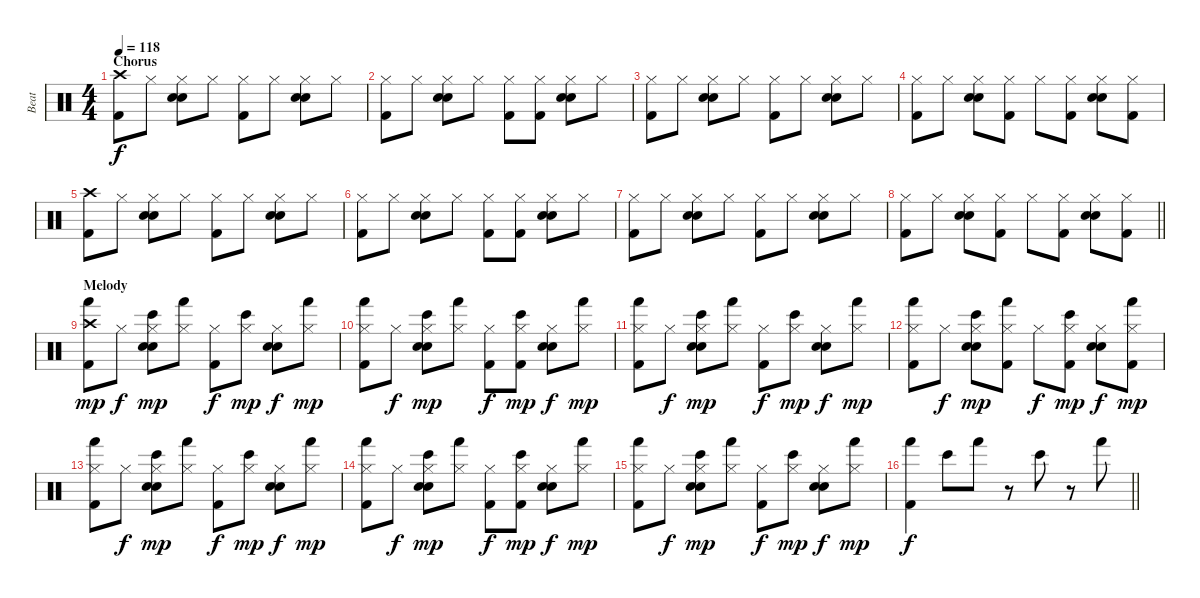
\track ("Beat" "Beat") {instrument percussion}
\staff {score}
\articulation defaults
\ts (4 4)
\section ("" "Chorus")
\tempo 118
\clef neutral
\ks c
("Crash high (hit)" "Kick (hit) 2").8{dy f} "Hi-Hat (closed)".8 ("Hi-Hat (closed)" "Electric Snare (hit)" "Hand Clap (hit)").8 "Hi-Hat (closed)".8 ("Hi-Hat (closed)" "Kick (hit) 2").8 "Hi-Hat (closed)".8 ("Hi-Hat (closed)" "Electric Snare (hit)" "Hand Clap (hit)").8 "Hi-Hat (closed)".8 |
("Hi-Hat (closed)" "Kick (hit) 2").8 "Hi-Hat (closed)".8 ("Hi-Hat (closed)" "Electric Snare (hit)" "Hand Clap (hit)").8 "Hi-Hat (closed)".8 ("Hi-Hat (closed)" "Kick (hit) 2").8 ("Hi-Hat (closed)" "Kick (hit) 2").8 ("Hi-Hat (closed)" "Electric Snare (hit)" "Hand Clap (hit)").8 "Hi-Hat (closed)".8 |
("Hi-Hat (closed)" "Kick (hit) 2").8 "Hi-Hat (closed)".8 ("Hi-Hat (closed)" "Electric Snare (hit)" "Hand Clap (hit)").8 "Hi-Hat (closed)".8 ("Hi-Hat (closed)" "Kick (hit) 2").8 "Hi-Hat (closed)".8 ("Hi-Hat (closed)" "Electric Snare (hit)" "Hand Clap (hit)").8 "Hi-Hat (closed)".8 |
("Hi-Hat (closed)" "Kick (hit) 2").8 "Hi-Hat (closed)".8 ("Hi-Hat (closed)" "Electric Snare (hit)" "Hand Clap (hit)").8 ("Hi-Hat (closed)" "Kick (hit) 2").8 "Hi-Hat (closed)".8 ("Hi-Hat (closed)" "Kick (hit) 2").8 ("Hi-Hat (closed)" "Electric Snare (hit)" "Hand Clap (hit)").8 ("Hi-Hat (closed)" "Kick (hit) 2").8 |
("Crash high (hit)" "Kick (hit) 2").8 "Hi-Hat (closed)".8 ("Hi-Hat (closed)" "Electric Snare (hit)" "Hand Clap (hit)").8 "Hi-Hat (closed)".8 ("Hi-Hat (closed)" "Kick (hit) 2").8 "Hi-Hat (closed)".8 ("Hi-Hat (closed)" "Electric Snare (hit)" "Hand Clap (hit)").8 "Hi-Hat (closed)".8 |
("Hi-Hat (closed)" "Kick (hit) 2").8 "Hi-Hat (closed)".8 ("Hi-Hat (closed)" "Electric Snare (hit)" "Hand Clap (hit)").8 "Hi-Hat (closed)".8 ("Hi-Hat (closed)" "Kick (hit) 2").8 ("Hi-Hat (closed)" "Kick (hit) 2").8 ("Hi-Hat (closed)" "Electric Snare (hit)" "Hand Clap (hit)").8 "Hi-Hat (closed)".8 |
("Hi-Hat (closed)" "Kick (hit) 2").8 "Hi-Hat (closed)".8 ("Hi-Hat (closed)" "Electric Snare (hit)" "Hand Clap (hit)").8 "Hi-Hat (closed)".8 ("Hi-Hat (closed)" "Kick (hit) 2").8 "Hi-Hat (closed)".8 ("Hi-Hat (closed)" "Electric Snare (hit)" "Hand Clap (hit)").8 "Hi-Hat (closed)".8 |
\barLineRight lightlight
("Hi-Hat (closed)" "Kick (hit) 2").8 "Hi-Hat (closed)".8 ("Hi-Hat (closed)" "Electric Snare (hit)" "Hand Clap (hit)").8 ("Hi-Hat (closed)" "Kick (hit) 2").8 "Hi-Hat (closed)".8 ("Hi-Hat (closed)" "Kick (hit) 2").8 ("Hi-Hat (closed)" "Electric Snare (hit)" "Hand Clap (hit)").8 ("Hi-Hat (closed)" "Kick (hit) 2").8 |
\section ("" "Melody")
("Crash high (hit)" "Hand (hit)" "Kick (hit) 2").8{dy mp} "Hi-Hat (closed)".8{dy f} ("Hi-Hat (closed)" "Bongo High (hit)" "Electric Snare (hit)" "Hand Clap (hit)").8{dy mp} ("Hi-Hat (closed)" "Hand (hit)").8 ("Hi-Hat (closed)" "Kick (hit) 2").8{dy f} ("Hi-Hat (closed)" "Bongo High (hit)").8{dy mp} ("Hi-Hat (closed)" "Electric Snare (hit)" "Hand Clap (hit)").8{dy f} ("Hi-Hat (closed)" "Hand (hit)").8{dy mp} |
("Hi-Hat (closed)" "Hand (hit)" "Kick (hit) 2").8 "Hi-Hat (closed)".8{dy f} ("Hi-Hat (closed)" "Bongo High (hit)" "Electric Snare (hit)" "Hand Clap (hit)").8{dy mp} ("Hi-Hat (closed)" "Hand (hit)").8 ("Hi-Hat (closed)" "Kick (hit) 2").8{dy f} ("Hi-Hat (closed)" "Bongo High (hit)" "Kick (hit) 2").8{dy mp} ("Hi-Hat (closed)" "Electric Snare (hit)" "Hand Clap (hit)").8{dy f} ("Hi-Hat (closed)" "Hand (hit)").8{dy mp} |
("Hi-Hat (closed)" "Hand (hit)" "Kick (hit) 2").8 "Hi-Hat (closed)".8{dy f} ("Hi-Hat (closed)" "Bongo High (hit)" "Electric Snare (hit)" "Hand Clap (hit)").8{dy mp} ("Hi-Hat (closed)" "Hand (hit)").8 ("Hi-Hat (closed)" "Kick (hit) 2").8{dy f} ("Hi-Hat (closed)" "Bongo High (hit)").8{dy mp} ("Hi-Hat (closed)" "Electric Snare (hit)" "Hand Clap (hit)").8{dy f} ("Hi-Hat (closed)" "Hand (hit)").8{dy mp} |
("Hi-Hat (closed)" "Hand (hit)" "Kick (hit) 2").8 "Hi-Hat (closed)".8{dy f} ("Hi-Hat (closed)" "Bongo High (hit)" "Electric Snare (hit)" "Hand Clap (hit)").8{dy mp} ("Hi-Hat (closed)" "Hand (hit)" "Kick (hit) 2").8 "Hi-Hat (closed)".8{dy f} ("Hi-Hat (closed)" "Bongo High (hit)" "Kick (hit) 2").8{dy mp} ("Hi-Hat (closed)" "Electric Snare (hit)" "Hand Clap (hit)").8{dy f} ("Hi-Hat (closed)" "Hand (hit)" "Kick (hit) 2").8{dy mp} |
("Hi-Hat (closed)" "Hand (hit)" "Kick (hit) 2").8 "Hi-Hat (closed)".8{dy f} ("Hi-Hat (closed)" "Bongo High (hit)" "Electric Snare (hit)" "Hand Clap (hit)").8{dy mp} ("Hi-Hat (closed)" "Hand (hit)").8 ("Hi-Hat (closed)" "Kick (hit) 2").8{dy f} ("Hi-Hat (closed)" "Bongo High (hit)").8{dy mp} ("Hi-Hat (closed)" "Electric Snare (hit)" "Hand Clap (hit)").8{dy f} ("Hi-Hat (closed)" "Hand (hit)").8{dy mp} |
("Hi-Hat (closed)" "Hand (hit)" "Kick (hit) 2").8 "Hi-Hat (closed)".8{dy f} ("Hi-Hat (closed)" "Bongo High (hit)" "Electric Snare (hit)" "Hand Clap (hit)").8{dy mp} ("Hi-Hat (closed)" "Hand (hit)").8 ("Hi-Hat (closed)" "Kick (hit) 2").8{dy f} ("Hi-Hat (closed)" "Bongo High (hit)" "Kick (hit) 2").8{dy mp} ("Hi-Hat (closed)" "Electric Snare (hit)" "Hand Clap (hit)").8{dy f} ("Hi-Hat (closed)" "Hand (hit)").8{dy mp} |
("Hi-Hat (closed)" "Hand (hit)" "Kick (hit) 2").8 "Hi-Hat (closed)".8{dy f} ("Hi-Hat (closed)" "Bongo High (hit)" "Electric Snare (hit)" "Hand Clap (hit)").8{dy mp} ("Hi-Hat (closed)" "Hand (hit)").8 ("Hi-Hat (closed)" "Kick (hit) 2").8{dy f} ("Hi-Hat (closed)" "Bongo High (hit)").8{dy mp} ("Hi-Hat (closed)" "Electric Snare (hit)" "Hand Clap (hit)").8{dy f} ("Hi-Hat (closed)" "Hand (hit)").8{dy mp} |
\barLineRight lightlight
("Hand (hit)" "Kick (hit) 2").4{dy f} "Bongo High (hit)".8 "Hand (hit)".8 r.8 "Bongo High (hit)".8 r.8 "Hand (hit)".8
